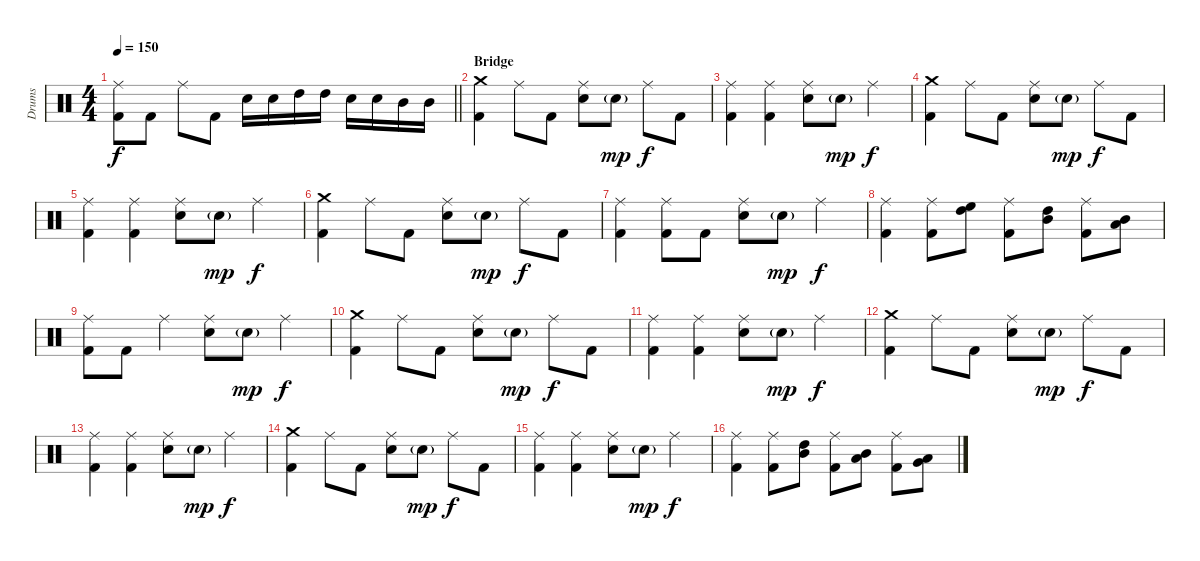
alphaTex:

\track ("Drums" "Drums") {instrument percussion}
\staff {score}
\articulation defaults
\ts (4 4)
\tempo 150
\clef neutral
\barLineRight lightlight
\ks c
("Kick (hit) 2" "Ride (middle)").8{dy f} "Kick (hit) 2".8 "Ride (middle)".8 "Kick (hit) 2".8 "Snare (hit) 2".16 "Snare (hit) 2".16 "High Tom (hit)".16 "High Tom (hit)".16 "Snare (hit) 2".16 "Snare (hit) 2".16 "Mid Tom (hit)".16 "Mid Tom (hit)".16 |
\section ("" "Bridge")
("Kick (hit) 2" "Crash medium (hit)").4 "Ride (middle)".8 "Kick (hit) 2".8 ("Snare (hit) 2" "Ride (middle)").8 "Snare (hit) 2"{g}.8{dy mp} "Ride (middle)".8{dy f} "Kick (hit) 2".8 |
("Kick (hit) 2" "Ride (middle)").4 ("Kick (hit) 2" "Ride (middle)").4 ("Snare (hit) 2" "Ride (middle)").8 "Snare (hit) 2"{g}.8{dy mp} "Ride (middle)".4{dy f} |
("Kick (hit) 2" "Crash medium (hit)").4 "Ride (middle)".8 "Kick (hit) 2".8 ("Snare (hit) 2" "Ride (middle)").8 "Snare (hit) 2"{g}.8{dy mp} "Ride (middle)".8{dy f} "Kick (hit) 2".8 |
("Kick (hit) 2" "Ride (middle)").4 ("Kick (hit) 2" "Ride (middle)").4 ("Snare (hit) 2" "Ride (middle)").8 "Snare (hit) 2"{g}.8{dy mp} "Ride (middle)".4{dy f} |
("Kick (hit) 2" "Crash medium (hit)").4 "Ride (middle)".8 "Kick (hit) 2".8 ("Snare (hit) 2" "Ride (middle)").8 "Snare (hit) 2"{g}.8{dy mp} "Ride (middle)".8{dy f} "Kick (hit) 2".8 |
("Kick (hit) 2" "Ride (middle)").4 ("Kick (hit) 2" "Ride (middle)").8 "Kick (hit) 2".8 ("Snare (hit) 2" "Ride (middle)").8 "Snare (hit) 2"{g}.8{dy mp} "Ride (middle)".4{dy f} |
("Kick (hit) 2" "Ride (middle)").4 ("Kick (hit) 2" "Ride (middle)").8 ("High Floor Tom (hit)" "High Tom (hit)").8 ("Kick (hit) 2" "Ride (middle)").8 ("High Tom (hit)" "Mid Tom (hit)").8 ("Kick (hit) 2" "Ride (middle)").8 ("Mid Tom (hit)" "Low Tom (hit)").8 |
("Kick (hit) 2" "Ride (middle)").8 "Kick (hit) 2".8 "Ride (middle)".4 ("Snare (hit) 2" "Ride (middle)").8 "Snare (hit) 2"{g}.8{dy mp} "Ride (middle)".4{dy f} |
("Kick (hit) 2" "Crash medium (hit)").4 "Ride (middle)".8 "Kick (hit) 2".8 ("Snare (hit) 2" "Ride (middle)").8 "Snare (hit) 2"{g}.8{dy mp} "Ride (middle)".8{dy f} "Kick (hit) 2".8 |
("Kick (hit) 2" "Ride (middle)").4 ("Kick (hit) 2" "Ride (middle)").4 ("Snare (hit) 2" "Ride (middle)").8 "Snare (hit) 2"{g}.8{dy mp} "Ride (middle)".4{dy f} |
("Kick (hit) 2" "Crash medium (hit)").4 "Ride (middle)".8 "Kick (hit) 2".8 ("Snare (hit) 2" "Ride (middle)").8 "Snare (hit) 2"{g}.8{dy mp} "Ride (middle)".8{dy f} "Kick (hit) 2".8 |
("Kick (hit) 2" "Ride (middle)").4 ("Kick (hit) 2" "Ride (middle)").4 ("Snare (hit) 2" "Ride (middle)").8 "Snare (hit) 2"{g}.8{dy mp} "Ride (middle)".4{dy f} |
("Kick (hit) 2" "Crash medium (hit)").4 "Ride (middle)".8 "Kick (hit) 2".8 ("Snare (hit) 2" "Ride (middle)").8 "Snare (hit) 2"{g}.8{dy mp} "Ride (middle)".8{dy f} "Kick (hit) 2".8 |
("Kick (hit) 2" "Ride (middle)").4 ("Kick (hit) 2" "Ride (middle)").4 ("Snare (hit) 2" "Ride (middle)").8 "Snare (hit) 2"{g}.8{dy mp} "Ride (middle)".4{dy f} |
("Kick (hit) 2" "Ride (middle)").4 ("Kick (hit) 2" "Ride (middle)").8 ("High Tom (hit)" "Mid Tom (hit)").8 ("Kick (hit) 2" "Ride (middle)").8 ("Mid Tom (hit)" "Low Tom (hit)").8 ("Kick (hit) 2" "Ride (middle)").8 ("Low Tom (hit)" "Very Low Tom (hit)").8
